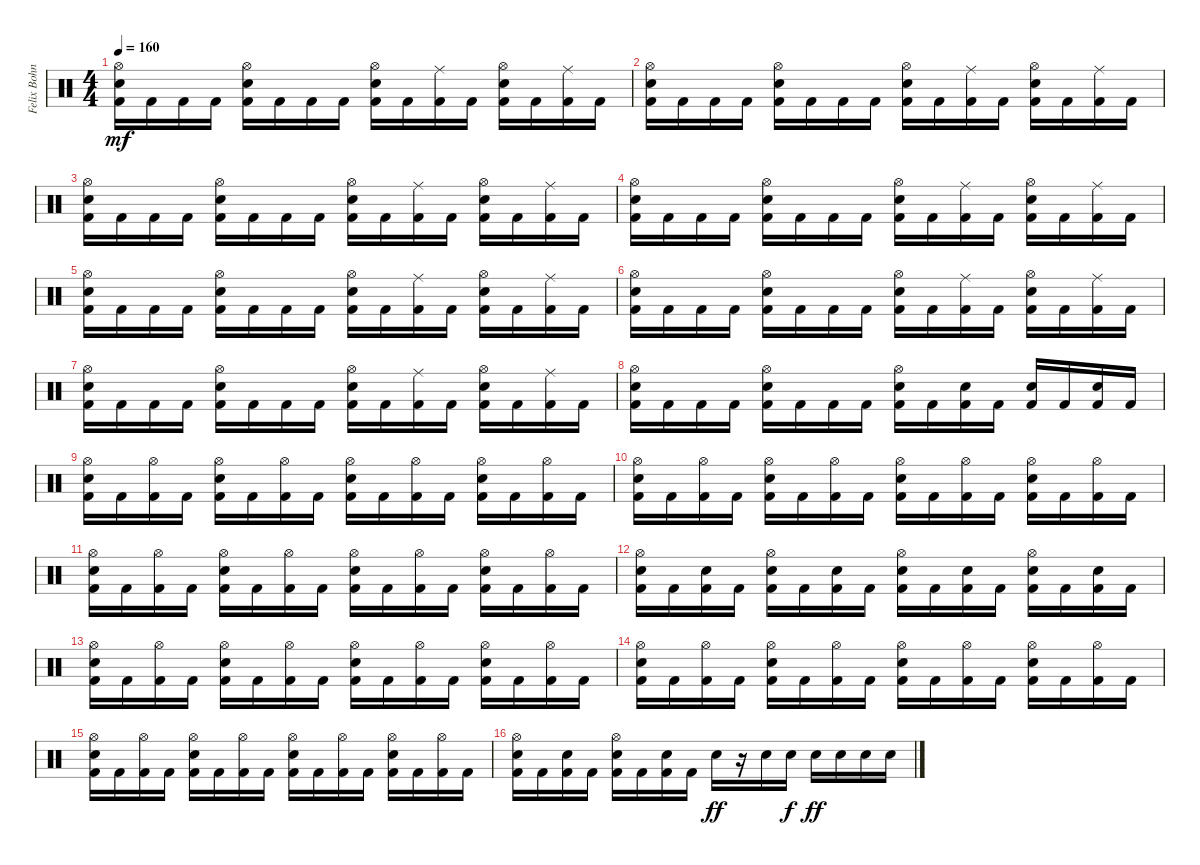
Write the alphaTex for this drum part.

\track ("Felix Bohnke" "Felix Bohn") {instrument percussion}
\staff {score}
\articulation defaults
\ts (4 4)
\tempo 160
\clef neutral
\ks c
("Hi-Hat (open)" "Electric Snare (hit)" "Kick (hit) 2").16{dy mf} "Kick (hit) 2".16 "Kick (hit) 2".16 "Kick (hit) 2".16 ("Hi-Hat (open)" "Electric Snare (hit)" "Kick (hit) 2").16 "Kick (hit) 2".16 "Kick (hit) 2".16 "Kick (hit) 2".16 ("Hi-Hat (open)" "Electric Snare (hit)" "Kick (hit) 2").16 "Kick (hit) 2".16 ("Ride (middle)" "Kick (hit) 2").16 "Kick (hit) 2".16 ("Hi-Hat (open)" "Electric Snare (hit)" "Kick (hit) 2").16 "Kick (hit) 2".16 ("Ride (middle)" "Kick (hit) 2").16 "Kick (hit) 2".16 |
("Hi-Hat (open)" "Electric Snare (hit)" "Kick (hit) 2").16 "Kick (hit) 2".16 "Kick (hit) 2".16 "Kick (hit) 2".16 ("Hi-Hat (open)" "Electric Snare (hit)" "Kick (hit) 2").16 "Kick (hit) 2".16 "Kick (hit) 2".16 "Kick (hit) 2".16 ("Hi-Hat (open)" "Electric Snare (hit)" "Kick (hit) 2").16 "Kick (hit) 2".16 ("Ride (middle)" "Kick (hit) 2").16 "Kick (hit) 2".16 ("Hi-Hat (open)" "Electric Snare (hit)" "Kick (hit) 2").16 "Kick (hit) 2".16 ("Ride (middle)" "Kick (hit) 2").16 "Kick (hit) 2".16 |
("Hi-Hat (open)" "Electric Snare (hit)" "Kick (hit) 2").16 "Kick (hit) 2".16 "Kick (hit) 2".16 "Kick (hit) 2".16 ("Hi-Hat (open)" "Electric Snare (hit)" "Kick (hit) 2").16 "Kick (hit) 2".16 "Kick (hit) 2".16 "Kick (hit) 2".16 ("Hi-Hat (open)" "Electric Snare (hit)" "Kick (hit) 2").16 "Kick (hit) 2".16 ("Ride (middle)" "Kick (hit) 2").16 "Kick (hit) 2".16 ("Hi-Hat (open)" "Electric Snare (hit)" "Kick (hit) 2").16 "Kick (hit) 2".16 ("Ride (middle)" "Kick (hit) 2").16 "Kick (hit) 2".16 |
("Hi-Hat (open)" "Electric Snare (hit)" "Kick (hit) 2").16 "Kick (hit) 2".16 "Kick (hit) 2".16 "Kick (hit) 2".16 ("Hi-Hat (open)" "Electric Snare (hit)" "Kick (hit) 2").16 "Kick (hit) 2".16 "Kick (hit) 2".16 "Kick (hit) 2".16 ("Hi-Hat (open)" "Electric Snare (hit)" "Kick (hit) 2").16 "Kick (hit) 2".16 ("Ride (middle)" "Kick (hit) 2").16 "Kick (hit) 2".16 ("Hi-Hat (open)" "Electric Snare (hit)" "Kick (hit) 2").16 "Kick (hit) 2".16 ("Ride (middle)" "Kick (hit) 2").16 "Kick (hit) 2".16 |
("Hi-Hat (open)" "Electric Snare (hit)" "Kick (hit) 2").16 "Kick (hit) 2".16 "Kick (hit) 2".16 "Kick (hit) 2".16 ("Hi-Hat (open)" "Electric Snare (hit)" "Kick (hit) 2").16 "Kick (hit) 2".16 "Kick (hit) 2".16 "Kick (hit) 2".16 ("Hi-Hat (open)" "Electric Snare (hit)" "Kick (hit) 2").16 "Kick (hit) 2".16 ("Ride (middle)" "Kick (hit) 2").16 "Kick (hit) 2".16 ("Hi-Hat (open)" "Electric Snare (hit)" "Kick (hit) 2").16 "Kick (hit) 2".16 ("Ride (middle)" "Kick (hit) 2").16 "Kick (hit) 2".16 |
("Hi-Hat (open)" "Electric Snare (hit)" "Kick (hit) 2").16 "Kick (hit) 2".16 "Kick (hit) 2".16 "Kick (hit) 2".16 ("Hi-Hat (open)" "Electric Snare (hit)" "Kick (hit) 2").16 "Kick (hit) 2".16 "Kick (hit) 2".16 "Kick (hit) 2".16 ("Hi-Hat (open)" "Electric Snare (hit)" "Kick (hit) 2").16 "Kick (hit) 2".16 ("Ride (middle)" "Kick (hit) 2").16 "Kick (hit) 2".16 ("Hi-Hat (open)" "Electric Snare (hit)" "Kick (hit) 2").16 "Kick (hit) 2".16 ("Ride (middle)" "Kick (hit) 2").16 "Kick (hit) 2".16 |
("Hi-Hat (open)" "Electric Snare (hit)" "Kick (hit) 2").16 "Kick (hit) 2".16 "Kick (hit) 2".16 "Kick (hit) 2".16 ("Hi-Hat (open)" "Electric Snare (hit)" "Kick (hit) 2").16 "Kick (hit) 2".16 "Kick (hit) 2".16 "Kick (hit) 2".16 ("Hi-Hat (open)" "Electric Snare (hit)" "Kick (hit) 2").16 "Kick (hit) 2".16 ("Ride (middle)" "Kick (hit) 2").16 "Kick (hit) 2".16 ("Hi-Hat (open)" "Electric Snare (hit)" "Kick (hit) 2").16 "Kick (hit) 2".16 ("Ride (middle)" "Kick (hit) 2").16 "Kick (hit) 2".16 |
("Hi-Hat (open)" "Electric Snare (hit)" "Kick (hit) 2").16 "Kick (hit) 2".16 "Kick (hit) 2".16 "Kick (hit) 2".16 ("Hi-Hat (open)" "Electric Snare (hit)" "Kick (hit) 2").16 "Kick (hit) 2".16 "Kick (hit) 2".16 "Kick (hit) 2".16 ("Hi-Hat (open)" "Electric Snare (hit)" "Kick (hit) 2").16 "Kick (hit) 2".16 ("Electric Snare (hit)" "Kick (hit) 2").16 "Kick (hit) 2".16 ("Electric Snare (hit)" "Kick (hit) 2").16 "Kick (hit) 2".16 ("Electric Snare (hit)" "Kick (hit) 2").16 "Kick (hit) 2".16 |
("Hi-Hat (open)" "Electric Snare (hit)" "Kick (hit) 2").16 "Kick (hit) 2".16 ("Hi-Hat (open)" "Kick (hit) 2").16 "Kick (hit) 2".16 ("Hi-Hat (open)" "Electric Snare (hit)" "Kick (hit) 2").16 "Kick (hit) 2".16 ("Hi-Hat (open)" "Kick (hit) 2").16 "Kick (hit) 2".16 ("Hi-Hat (open)" "Electric Snare (hit)" "Kick (hit) 2").16 "Kick (hit) 2".16 ("Hi-Hat (open)" "Kick (hit) 2").16 "Kick (hit) 2".16 ("Hi-Hat (open)" "Electric Snare (hit)" "Kick (hit) 2").16 "Kick (hit) 2".16 ("Hi-Hat (open)" "Kick (hit) 2").16 "Kick (hit) 2".16 |
("Hi-Hat (open)" "Electric Snare (hit)" "Kick (hit) 2").16 "Kick (hit) 2".16 ("Hi-Hat (open)" "Kick (hit) 2").16 "Kick (hit) 2".16 ("Hi-Hat (open)" "Electric Snare (hit)" "Kick (hit) 2").16 "Kick (hit) 2".16 ("Hi-Hat (open)" "Kick (hit) 2").16 "Kick (hit) 2".16 ("Hi-Hat (open)" "Electric Snare (hit)" "Kick (hit) 2").16 "Kick (hit) 2".16 ("Hi-Hat (open)" "Kick (hit) 2").16 "Kick (hit) 2".16 ("Hi-Hat (open)" "Electric Snare (hit)" "Kick (hit) 2").16 "Kick (hit) 2".16 ("Hi-Hat (open)" "Kick (hit) 2").16 "Kick (hit) 2".16 |
("Hi-Hat (open)" "Electric Snare (hit)" "Kick (hit) 2").16 "Kick (hit) 2".16 ("Hi-Hat (open)" "Kick (hit) 2").16 "Kick (hit) 2".16 ("Hi-Hat (open)" "Electric Snare (hit)" "Kick (hit) 2").16 "Kick (hit) 2".16 ("Hi-Hat (open)" "Kick (hit) 2").16 "Kick (hit) 2".16 ("Hi-Hat (open)" "Electric Snare (hit)" "Kick (hit) 2").16 "Kick (hit) 2".16 ("Hi-Hat (open)" "Kick (hit) 2").16 "Kick (hit) 2".16 ("Hi-Hat (open)" "Electric Snare (hit)" "Kick (hit) 2").16 "Kick (hit) 2".16 ("Hi-Hat (open)" "Kick (hit) 2").16 "Kick (hit) 2".16 |
("Hi-Hat (open)" "Electric Snare (hit)" "Kick (hit) 2").16 "Kick (hit) 2".16 ("Electric Snare (hit)" "Kick (hit) 2").16 "Kick (hit) 2".16 ("Hi-Hat (open)" "Electric Snare (hit)" "Kick (hit) 2").16 "Kick (hit) 2".16 ("Electric Snare (hit)" "Kick (hit) 2").16 "Kick (hit) 2".16 ("Hi-Hat (open)" "Electric Snare (hit)" "Kick (hit) 2").16 "Kick (hit) 2".16 ("Electric Snare (hit)" "Kick (hit) 2").16 "Kick (hit) 2".16 ("Hi-Hat (open)" "Electric Snare (hit)" "Kick (hit) 2").16 "Kick (hit) 2".16 ("Electric Snare (hit)" "Kick (hit) 2").16 "Kick (hit) 2".16 |
("Hi-Hat (open)" "Electric Snare (hit)" "Kick (hit) 2").16 "Kick (hit) 2".16 ("Hi-Hat (open)" "Kick (hit) 2").16 "Kick (hit) 2".16 ("Hi-Hat (open)" "Electric Snare (hit)" "Kick (hit) 2").16 "Kick (hit) 2".16 ("Hi-Hat (open)" "Kick (hit) 2").16 "Kick (hit) 2".16 ("Hi-Hat (open)" "Electric Snare (hit)" "Kick (hit) 2").16 "Kick (hit) 2".16 ("Hi-Hat (open)" "Kick (hit) 2").16 "Kick (hit) 2".16 ("Hi-Hat (open)" "Electric Snare (hit)" "Kick (hit) 2").16 "Kick (hit) 2".16 ("Hi-Hat (open)" "Kick (hit) 2").16 "Kick (hit) 2".16 |
("Hi-Hat (open)" "Electric Snare (hit)" "Kick (hit) 2").16 "Kick (hit) 2".16 ("Hi-Hat (open)" "Kick (hit) 2").16 "Kick (hit) 2".16 ("Hi-Hat (open)" "Electric Snare (hit)" "Kick (hit) 2").16 "Kick (hit) 2".16 ("Hi-Hat (open)" "Kick (hit) 2").16 "Kick (hit) 2".16 ("Hi-Hat (open)" "Electric Snare (hit)" "Kick (hit) 2").16 "Kick (hit) 2".16 ("Hi-Hat (open)" "Kick (hit) 2").16 "Kick (hit) 2".16 ("Hi-Hat (open)" "Electric Snare (hit)" "Kick (hit) 2").16 "Kick (hit) 2".16 ("Hi-Hat (open)" "Kick (hit) 2").16 "Kick (hit) 2".16 |
("Hi-Hat (open)" "Electric Snare (hit)" "Kick (hit) 2").16 "Kick (hit) 2".16 ("Hi-Hat (open)" "Kick (hit) 2").16 "Kick (hit) 2".16 ("Hi-Hat (open)" "Electric Snare (hit)" "Kick (hit) 2").16 "Kick (hit) 2".16 ("Hi-Hat (open)" "Kick (hit) 2").16 "Kick (hit) 2".16 ("Hi-Hat (open)" "Electric Snare (hit)" "Kick (hit) 2").16 "Kick (hit) 2".16 ("Hi-Hat (open)" "Kick (hit) 2").16 "Kick (hit) 2".16 ("Hi-Hat (open)" "Electric Snare (hit)" "Kick (hit) 2").16 "Kick (hit) 2".16 ("Hi-Hat (open)" "Kick (hit) 2").16 "Kick (hit) 2".16 |
("Hi-Hat (open)" "Electric Snare (hit)" "Kick (hit) 2").16 "Kick (hit) 2".16 ("Electric Snare (hit)" "Kick (hit) 2").16 "Kick (hit) 2".16 ("Hi-Hat (open)" "Electric Snare (hit)" "Kick (hit) 2").16 "Kick (hit) 2".16 ("Electric Snare (hit)" "Kick (hit) 2").16 "Kick (hit) 2".16 "Electric Snare (hit)".16{dy ff} r.16 "Electric Snare (hit)".16 "Electric Snare (hit)".16{dy f} "Electric Snare (hit)".16{dy ff} "Electric Snare (hit)".16 "Electric Snare (hit)".16 "Electric Snare (hit)".16
